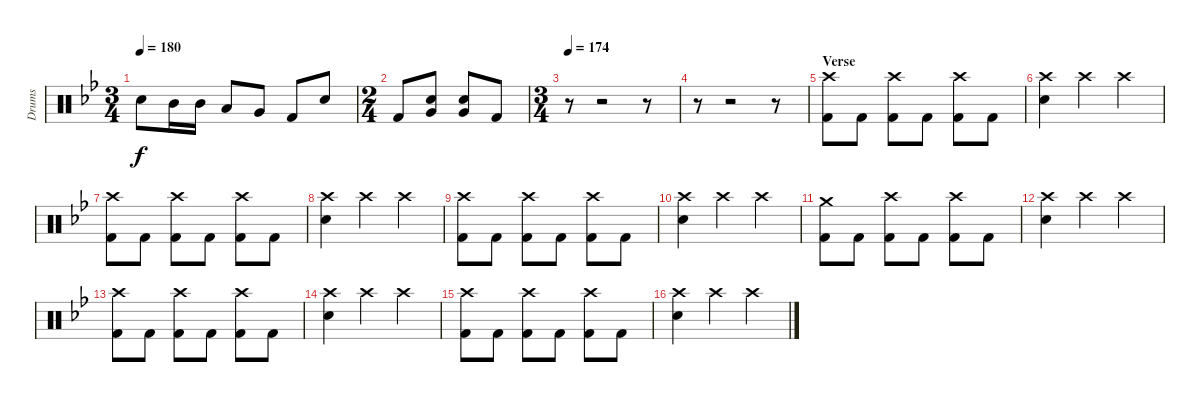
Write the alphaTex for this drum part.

\bracketExtendMode groupsimilarinstruments
\track ("Drumkit" "Drums") {instrument percussion}
\staff {score}
\articulation defaults
\ts (3 4)
\tempo 180
\clef neutral
\ks bb "Snare (hit) 2"{acc forcenatural}.8{dy f} "Mid Tom (hit)"{acc forcenatural}.16 "Mid Tom (hit)"{acc forcenatural}.16 "Low Tom (hit)"{acc forcenatural}.8 "Very Low Tom (hit)"{acc forcenatural}.8 "Kick (hit) 2"{acc forcenatural}.8 "Snare (hit) 2"{acc forcenatural}.8
|
\ts (2 4)
\beaming (8 2 2)
"Kick (hit) 2"{acc forcenatural}.8 ("Snare (hit) 2"{acc forcenatural} "Very Low Tom (hit)"{acc forcenatural}).8 ("Snare (hit) 2"{acc forcenatural} "Very Low Tom (hit)"{acc forcenatural}).8 "Kick (hit) 2"{acc forcenatural}.8 |
\ts (3 4)
\beaming (8 2 2 2)
\tempo 174
r.8 r.2 r.8 |
r.8 r.2 r.8 |
\section ("" "Verse ")
("Crash high (hit)"{acc forcenatural} "Kick (hit) 2"{acc forcenatural}).8 "Kick (hit) 2"{acc forcenatural}.8 ("Crash high (hit)"{acc forcenatural} "Kick (hit) 2"{acc forcenatural}).8 "Kick (hit) 2"{acc forcenatural}.8 ("Crash high (hit)"{acc forcenatural} "Kick (hit) 2"{acc forcenatural}).8 "Kick (hit) 2"{acc forcenatural}.8 |
("Crash high (hit)"{acc forcenatural} "Snare (hit) 2"{acc forcenatural}).4 "Crash high (hit)"{acc forcenatural}.4 "Crash high (hit)"{acc forcenatural}.4 |
("Crash high (hit)"{acc forcenatural} "Kick (hit) 2"{acc forcenatural}).8 "Kick (hit) 2"{acc forcenatural}.8 ("Crash high (hit)"{acc forcenatural} "Kick (hit) 2"{acc forcenatural}).8 "Kick (hit) 2"{acc forcenatural}.8 ("Crash high (hit)"{acc forcenatural} "Kick (hit) 2"{acc forcenatural}).8 "Kick (hit) 2"{acc forcenatural}.8 |
("Crash high (hit)"{acc forcenatural} "Snare (hit) 2"{acc forcenatural}).4 "Crash high (hit)"{acc forcenatural}.4 "Crash high (hit)"{acc forcenatural}.4 |
("Crash high (hit)"{acc forcenatural} "Kick (hit) 2"{acc forcenatural}).8 "Kick (hit) 2"{acc forcenatural}.8 ("Crash high (hit)"{acc forcenatural} "Kick (hit) 2"{acc forcenatural}).8 "Kick (hit) 2"{acc forcenatural}.8 ("Crash high (hit)"{acc forcenatural} "Kick (hit) 2"{acc forcenatural}).8 "Kick (hit) 2"{acc forcenatural}.8 |
("Crash high (hit)"{acc forcenatural} "Snare (hit) 2"{acc forcenatural}).4 "Crash high (hit)"{acc forcenatural}.4 "Crash high (hit)"{acc forcenatural}.4 |
("Crash medium (hit)"{acc forcenatural} "Kick (hit) 2"{acc forcenatural}).8 "Kick (hit) 2"{acc forcenatural}.8 ("Crash high (hit)"{acc forcenatural} "Kick (hit) 2"{acc forcenatural}).8 "Kick (hit) 2"{acc forcenatural}.8 ("Crash high (hit)"{acc forcenatural} "Kick (hit) 2"{acc forcenatural}).8 "Kick (hit) 2"{acc forcenatural}.8 |
("Crash high (hit)"{acc forcenatural} "Snare (hit) 2"{acc forcenatural}).4 "Crash high (hit)"{acc forcenatural}.4 "Crash high (hit)"{acc forcenatural}.4 |
("Crash high (hit)"{acc forcenatural} "Kick (hit) 2"{acc forcenatural}).8 "Kick (hit) 2"{acc forcenatural}.8 ("Crash high (hit)"{acc forcenatural} "Kick (hit) 2"{acc forcenatural}).8 "Kick (hit) 2"{acc forcenatural}.8 ("Crash high (hit)"{acc forcenatural} "Kick (hit) 2"{acc forcenatural}).8 "Kick (hit) 2"{acc forcenatural}.8 |
("Crash high (hit)"{acc forcenatural} "Snare (hit) 2"{acc forcenatural}).4 "Crash high (hit)"{acc forcenatural}.4 "Crash high (hit)"{acc forcenatural}.4 |
("Crash high (hit)"{acc forcenatural} "Kick (hit) 2"{acc forcenatural}).8 "Kick (hit) 2"{acc forcenatural}.8 ("Crash high (hit)"{acc forcenatural} "Kick (hit) 2"{acc forcenatural}).8 "Kick (hit) 2"{acc forcenatural}.8 ("Crash high (hit)"{acc forcenatural} "Kick (hit) 2"{acc forcenatural}).8 "Kick (hit) 2"{acc forcenatural}.8 |
("Crash high (hit)"{acc forcenatural} "Snare (hit) 2"{acc forcenatural}).4 "Crash high (hit)"{acc forcenatural}.4 "Crash high (hit)"{acc forcenatural}.4
